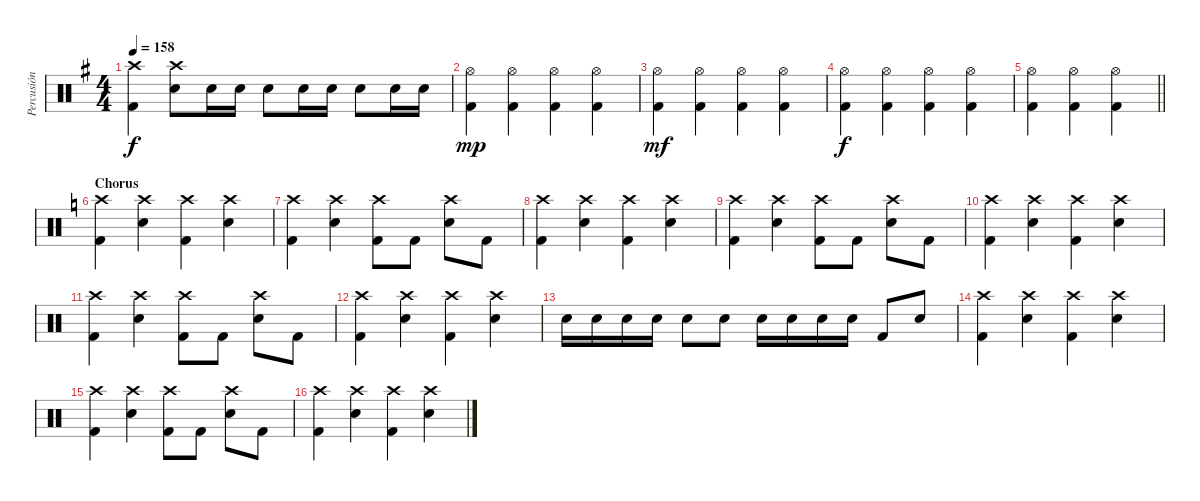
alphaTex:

\track ("Percusión" "Percusión") {instrument percussion}
\staff {score}
\articulation defaults
\ts (4 4)
\tempo 158
\clef neutral
\ks g
("Crash high (hit)" "Kick (hit) 2").4{dy f} ("Crash high (hit)" "Snare (hit) 2").8 "Snare (hit) 2".16 "Snare (hit) 2".16 "Snare (hit) 2".8 "Snare (hit) 2".16 "Snare (hit) 2".16 "Snare (hit) 2".8 "Snare (hit) 2".16 "Snare (hit) 2".16 |
("Hi-Hat (open)" "Kick (hit) 2").4{dy mp} ("Hi-Hat (open)" "Kick (hit) 2").4 ("Hi-Hat (open)" "Kick (hit) 2").4 ("Hi-Hat (open)" "Kick (hit) 2").4 |
("Hi-Hat (open)" "Kick (hit) 2").4{dy mf} ("Hi-Hat (open)" "Kick (hit) 2").4 ("Hi-Hat (open)" "Kick (hit) 2").4 ("Hi-Hat (open)" "Kick (hit) 2").4 |
("Hi-Hat (open)" "Kick (hit) 2").4{dy f} ("Hi-Hat (open)" "Kick (hit) 2").4 ("Hi-Hat (open)" "Kick (hit) 2").4 ("Hi-Hat (open)" "Kick (hit) 2").4 |
\barLineRight lightlight
("Hi-Hat (open)" "Kick (hit) 2").4 ("Hi-Hat (open)" "Kick (hit) 2").4 ("Hi-Hat (open)" "Kick (hit) 2").4 |
\section ("" "Chorus")
\ks c
("Crash high (hit)" "Kick (hit) 2").4 ("Crash high (hit)" "Snare (hit) 2").4 ("Crash high (hit)" "Kick (hit) 2").4 ("Crash high (hit)" "Snare (hit) 2").4 |
("Crash high (hit)" "Kick (hit) 2").4 ("Crash high (hit)" "Snare (hit) 2").4 ("Crash high (hit)" "Kick (hit) 2").8 "Kick (hit) 2".8 ("Crash high (hit)" "Snare (hit) 2").8 "Kick (hit) 2".8 |
("Crash high (hit)" "Kick (hit) 2").4 ("Crash high (hit)" "Snare (hit) 2").4 ("Crash high (hit)" "Kick (hit) 2").4 ("Crash high (hit)" "Snare (hit) 2").4 |
("Crash high (hit)" "Kick (hit) 2").4 ("Crash high (hit)" "Snare (hit) 2").4 ("Crash high (hit)" "Kick (hit) 2").8 "Kick (hit) 2".8 ("Crash high (hit)" "Snare (hit) 2").8 "Kick (hit) 2".8 |
("Crash high (hit)" "Kick (hit) 2").4 ("Crash high (hit)" "Snare (hit) 2").4 ("Crash high (hit)" "Kick (hit) 2").4 ("Crash high (hit)" "Snare (hit) 2").4 |
("Crash high (hit)" "Kick (hit) 2").4 ("Crash high (hit)" "Snare (hit) 2").4 ("Crash high (hit)" "Kick (hit) 2").8 "Kick (hit) 2".8 ("Crash high (hit)" "Snare (hit) 2").8 "Kick (hit) 2".8 |
("Crash high (hit)" "Kick (hit) 2").4 ("Crash high (hit)" "Snare (hit) 2").4 ("Crash high (hit)" "Kick (hit) 2").4 ("Crash high (hit)" "Snare (hit) 2").4 |
"Snare (hit) 2".16 "Snare (hit) 2".16 "Snare (hit) 2".16 "Snare (hit) 2".16 "Snare (hit) 2".8 "Snare (hit) 2".8 "Snare (hit) 2".16 "Snare (hit) 2".16 "Snare (hit) 2".16 "Snare (hit) 2".16 "Kick (hit) 2".8 "Snare (hit) 2".8 |
("Crash high (hit)" "Kick (hit) 2").4 ("Crash high (hit)" "Snare (hit) 2").4 ("Crash high (hit)" "Kick (hit) 2").4 ("Crash high (hit)" "Snare (hit) 2").4 |
("Crash high (hit)" "Kick (hit) 2").4 ("Crash high (hit)" "Snare (hit) 2").4 ("Crash high (hit)" "Kick (hit) 2").8 "Kick (hit) 2".8 ("Crash high (hit)" "Snare (hit) 2").8 "Kick (hit) 2".8 |
("Crash high (hit)" "Kick (hit) 2").4 ("Crash high (hit)" "Snare (hit) 2").4 ("Crash high (hit)" "Kick (hit) 2").4 ("Crash high (hit)" "Snare (hit) 2").4
